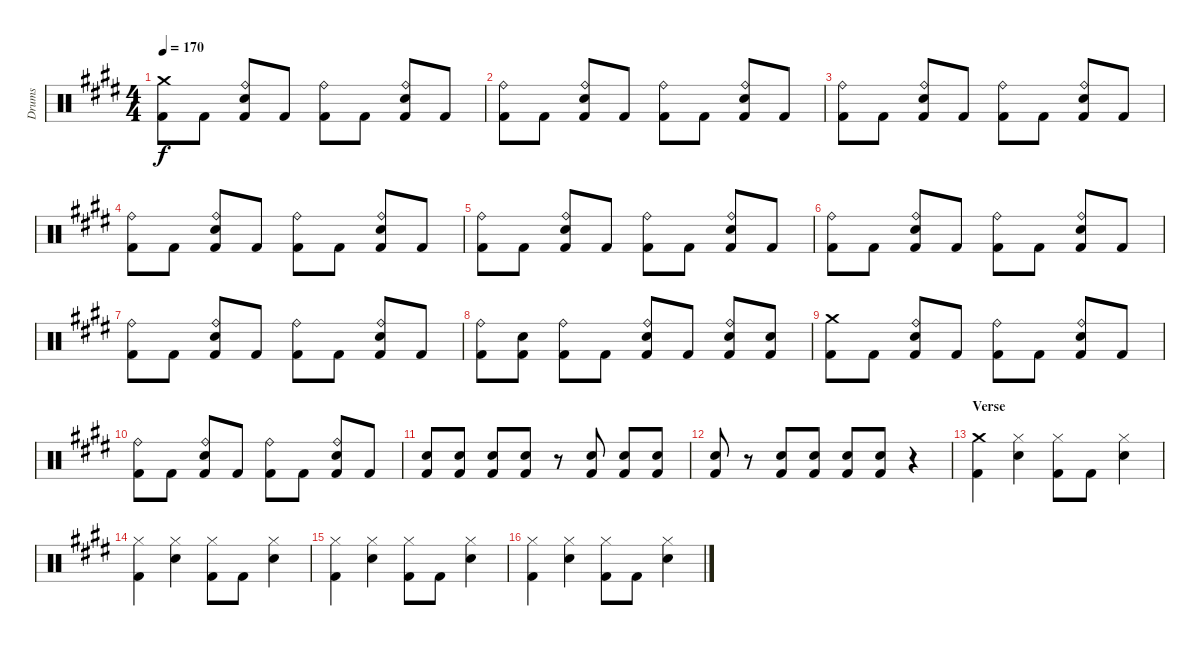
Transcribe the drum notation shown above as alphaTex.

\track ("Drums" "Drums") {instrument percussion}
\staff {score}
\articulation defaults
\ts (4 4)
\tempo 170
\clef neutral
\ks c#minor
("Crash medium (hit)" "Kick (hit) 2").8{dy f} "Kick (hit) 2".8 ("Ride (bell)" "Electric Snare (hit)" "Kick (hit) 2").8 "Kick (hit) 2".8 ("Ride (bell)" "Kick (hit) 2").8 "Kick (hit) 2".8 ("Ride (bell)" "Electric Snare (hit)" "Kick (hit) 2").8 "Kick (hit) 2".8 |
("Ride (bell)" "Kick (hit) 2").8 "Kick (hit) 2".8 ("Ride (bell)" "Electric Snare (hit)" "Kick (hit) 2").8 "Kick (hit) 2".8 ("Ride (bell)" "Kick (hit) 2").8 "Kick (hit) 2".8 ("Ride (bell)" "Electric Snare (hit)" "Kick (hit) 2").8 "Kick (hit) 2".8 |
("Ride (bell)" "Kick (hit) 2").8 "Kick (hit) 2".8 ("Ride (bell)" "Electric Snare (hit)" "Kick (hit) 2").8 "Kick (hit) 2".8 ("Ride (bell)" "Kick (hit) 2").8 "Kick (hit) 2".8 ("Ride (bell)" "Electric Snare (hit)" "Kick (hit) 2").8 "Kick (hit) 2".8 |
("Ride (bell)" "Kick (hit) 2").8 "Kick (hit) 2".8 ("Ride (bell)" "Electric Snare (hit)" "Kick (hit) 2").8 "Kick (hit) 2".8 ("Ride (bell)" "Kick (hit) 2").8 "Kick (hit) 2".8 ("Ride (bell)" "Electric Snare (hit)" "Kick (hit) 2").8 "Kick (hit) 2".8 |
("Ride (bell)" "Kick (hit) 2").8 "Kick (hit) 2".8 ("Ride (bell)" "Electric Snare (hit)" "Kick (hit) 2").8 "Kick (hit) 2".8 ("Ride (bell)" "Kick (hit) 2").8 "Kick (hit) 2".8 ("Ride (bell)" "Electric Snare (hit)" "Kick (hit) 2").8 "Kick (hit) 2".8 |
("Ride (bell)" "Kick (hit) 2").8 "Kick (hit) 2".8 ("Ride (bell)" "Electric Snare (hit)" "Kick (hit) 2").8 "Kick (hit) 2".8 ("Ride (bell)" "Kick (hit) 2").8 "Kick (hit) 2".8 ("Ride (bell)" "Electric Snare (hit)" "Kick (hit) 2").8 "Kick (hit) 2".8 |
("Ride (bell)" "Kick (hit) 2").8 "Kick (hit) 2".8 ("Ride (bell)" "Electric Snare (hit)" "Kick (hit) 2").8 "Kick (hit) 2".8 ("Ride (bell)" "Kick (hit) 2").8 "Kick (hit) 2".8 ("Ride (bell)" "Electric Snare (hit)" "Kick (hit) 2").8 "Kick (hit) 2".8 |
("Ride (bell)" "Kick (hit) 2").8 ("Electric Snare (hit)" "Kick (hit) 2").8 ("Ride (bell)" "Kick (hit) 2").8 "Kick (hit) 2".8 ("Ride (bell)" "Electric Snare (hit)" "Kick (hit) 2").8 "Kick (hit) 2".8 ("Ride (bell)" "Electric Snare (hit)" "Kick (hit) 2").8 ("Electric Snare (hit)" "Kick (hit) 2").8 |
("Crash medium (hit)" "Kick (hit) 2").8 "Kick (hit) 2".8 ("Ride (bell)" "Electric Snare (hit)" "Kick (hit) 2").8 "Kick (hit) 2".8 ("Ride (bell)" "Kick (hit) 2").8 "Kick (hit) 2".8 ("Ride (bell)" "Electric Snare (hit)" "Kick (hit) 2").8 "Kick (hit) 2".8 |
("Ride (bell)" "Kick (hit) 2").8 "Kick (hit) 2".8 ("Ride (bell)" "Electric Snare (hit)" "Kick (hit) 2").8 "Kick (hit) 2".8 ("Ride (bell)" "Kick (hit) 2").8 "Kick (hit) 2".8 ("Ride (bell)" "Electric Snare (hit)" "Kick (hit) 2").8 "Kick (hit) 2".8 |
("Electric Snare (hit)" "Kick (hit) 2").8 ("Electric Snare (hit)" "Kick (hit) 2").8 ("Electric Snare (hit)" "Kick (hit) 2").8 ("Electric Snare (hit)" "Kick (hit) 2").8 r.8 ("Electric Snare (hit)" "Kick (hit) 2").8 ("Electric Snare (hit)" "Kick (hit) 2").8 ("Electric Snare (hit)" "Kick (hit) 2").8 |
("Electric Snare (hit)" "Kick (hit) 2").8 r.8 ("Electric Snare (hit)" "Kick (hit) 2").8 ("Electric Snare (hit)" "Kick (hit) 2").8 ("Electric Snare (hit)" "Kick (hit) 2").8 ("Electric Snare (hit)" "Kick (hit) 2").8 r.4 |
\section ("" "Verse")
("Crash medium (hit)" "Kick (hit) 2").4 ("Hi-Hat (closed)" "Electric Snare (hit)").4 ("Hi-Hat (closed)" "Kick (hit) 2").8 "Kick (hit) 2".8 ("Hi-Hat (closed)" "Electric Snare (hit)").4 |
("Hi-Hat (closed)" "Kick (hit) 2").4 ("Hi-Hat (closed)" "Electric Snare (hit)").4 ("Hi-Hat (closed)" "Kick (hit) 2").8 "Kick (hit) 2".8 ("Hi-Hat (closed)" "Electric Snare (hit)").4 |
("Hi-Hat (closed)" "Kick (hit) 2").4 ("Hi-Hat (closed)" "Electric Snare (hit)").4 ("Hi-Hat (closed)" "Kick (hit) 2").8 "Kick (hit) 2".8 ("Hi-Hat (closed)" "Electric Snare (hit)").4 |
("Hi-Hat (closed)" "Kick (hit) 2").4 ("Hi-Hat (closed)" "Electric Snare (hit)").4 ("Hi-Hat (closed)" "Kick (hit) 2").8 "Kick (hit) 2".8 ("Hi-Hat (closed)" "Electric Snare (hit)").4
